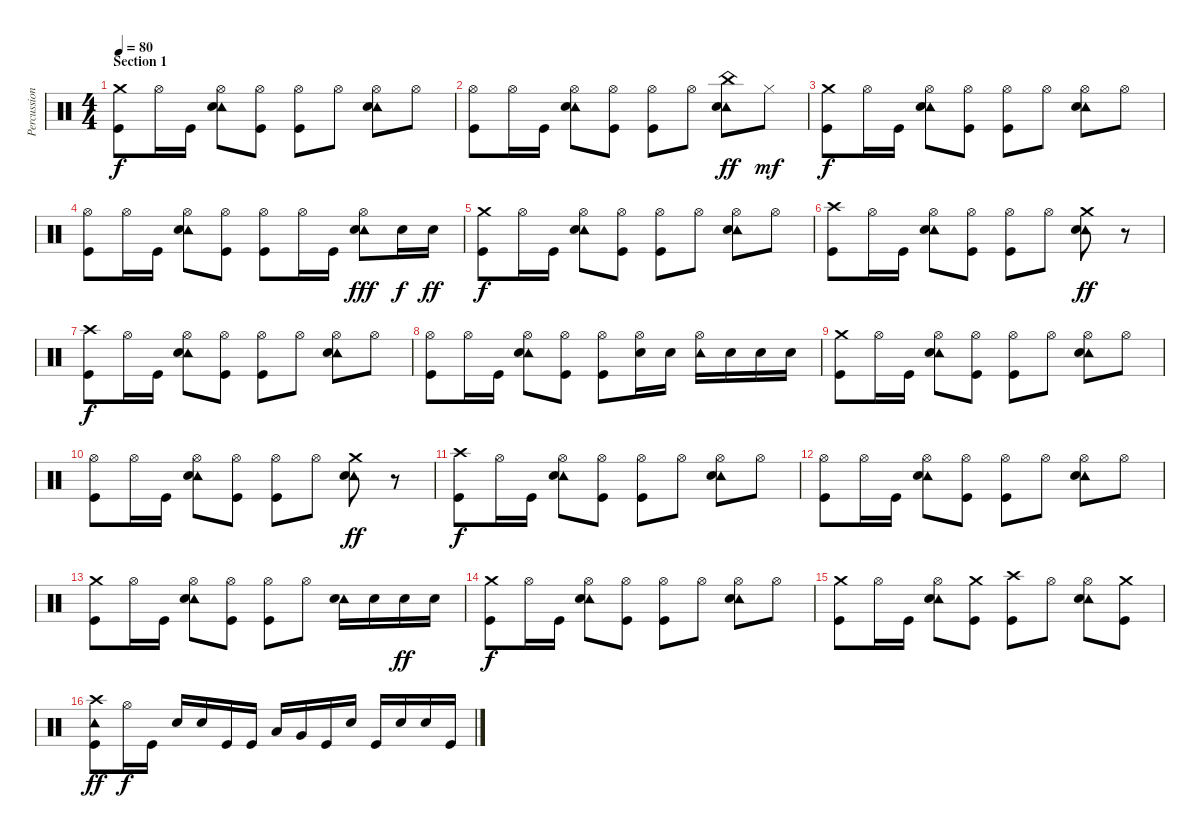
\track ("Percussion" "Percussion") {instrument percussion}
\staff {score}
\articulation defaults
\ts (4 4)
\section ("" "Section 1")
\tempo 80
\clef neutral
\ks c
("Crash medium (hit)" "Kick (hit)").8{dy f} "Hi-Hat (open)".16 "Kick (hit)".16 ("Hi-Hat (open)" "Tambourine (hit)" "Electric Snare (hit)").8 ("Hi-Hat (open)" "Kick (hit)").8 ("Hi-Hat (open)" "Kick (hit)").8 "Hi-Hat (open)".8 ("Hi-Hat (open)" "Tambourine (hit)" "Electric Snare (hit)").8 "Hi-Hat (open)".8 |
("Hi-Hat (open)" "Kick (hit)").8 "Hi-Hat (open)".16 "Kick (hit)".16 ("Hi-Hat (open)" "Tambourine (hit)" "Electric Snare (hit)").8 ("Hi-Hat (open)" "Kick (hit)").8 ("Hi-Hat (open)" "Kick (hit)").8 "Hi-Hat (open)".8 ("China (hit)" "Tambourine (hit)" "Electric Snare (hit)").8{dy ff} "Hi-Hat (closed)".8{dy mf} |
("Crash medium (hit)" "Kick (hit)").8{dy f} "Hi-Hat (open)".16 "Kick (hit)".16 ("Hi-Hat (open)" "Tambourine (hit)" "Electric Snare (hit)").8 ("Hi-Hat (open)" "Kick (hit)").8 ("Hi-Hat (open)" "Kick (hit)").8 "Hi-Hat (open)".8 ("Hi-Hat (open)" "Tambourine (hit)" "Electric Snare (hit)").8 "Hi-Hat (open)".8 |
("Hi-Hat (open)" "Kick (hit)").8 "Hi-Hat (open)".16 "Kick (hit)".16 ("Hi-Hat (open)" "Tambourine (hit)" "Electric Snare (hit)").8 ("Hi-Hat (open)" "Kick (hit)").8 ("Hi-Hat (open)" "Kick (hit)").8 "Hi-Hat (open)".16 "Kick (hit)".16 ("Hi-Hat (open)" "Tambourine (hit)" "Electric Snare (hit)").8{dy fff} "Electric Snare (hit)".16{dy f} "Electric Snare (hit)".16{dy ff} |
("Crash medium (hit)" "Kick (hit)").8{dy f} "Hi-Hat (open)".16 "Kick (hit)".16 ("Hi-Hat (open)" "Tambourine (hit)" "Electric Snare (hit)").8 ("Hi-Hat (open)" "Kick (hit)").8 ("Hi-Hat (open)" "Kick (hit)").8 "Hi-Hat (open)".8 ("Hi-Hat (open)" "Tambourine (hit)" "Electric Snare (hit)").8 "Hi-Hat (open)".8 |
("Crash high (hit)" "Kick (hit)").8 "Hi-Hat (open)".16 "Kick (hit)".16 ("Hi-Hat (open)" "Tambourine (hit)" "Electric Snare (hit)").8 ("Hi-Hat (open)" "Kick (hit)").8 ("Hi-Hat (open)" "Kick (hit)").8 "Hi-Hat (open)".8 ("Crash medium (hit)" "Tambourine (hit)" "Electric Snare (hit)").8{dy ff} r.8 |
("Crash high (hit)" "Kick (hit)").8{dy f} "Hi-Hat (open)".16 "Kick (hit)".16 ("Hi-Hat (open)" "Tambourine (hit)" "Electric Snare (hit)").8 ("Hi-Hat (open)" "Kick (hit)").8 ("Hi-Hat (open)" "Kick (hit)").8 "Hi-Hat (open)".8 ("Hi-Hat (open)" "Tambourine (hit)" "Electric Snare (hit)").8 "Hi-Hat (open)".8 |
("Hi-Hat (open)" "Kick (hit)").8 "Hi-Hat (open)".16 "Kick (hit)".16 ("Hi-Hat (open)" "Tambourine (hit)" "Electric Snare (hit)").8 ("Hi-Hat (open)" "Kick (hit)").8 ("Hi-Hat (open)" "Kick (hit)").8 ("Hi-Hat (open)" "Electric Snare (hit)").16 "Electric Snare (hit)".16 ("Hi-Hat (open)" "Tambourine (hit)").16 "Electric Snare (hit)".16 "Electric Snare (hit)".16 "Electric Snare (hit)".16 |
("Crash medium (hit)" "Kick (hit)").8 "Hi-Hat (open)".16 "Kick (hit)".16 ("Hi-Hat (open)" "Tambourine (hit)" "Electric Snare (hit)").8 ("Hi-Hat (open)" "Kick (hit)").8 ("Hi-Hat (open)" "Kick (hit)").8 "Hi-Hat (open)".8 ("Hi-Hat (open)" "Tambourine (hit)" "Electric Snare (hit)").8 "Hi-Hat (open)".8 |
("Hi-Hat (open)" "Kick (hit)").8 "Hi-Hat (open)".16 "Kick (hit)".16 ("Hi-Hat (open)" "Tambourine (hit)" "Electric Snare (hit)").8 ("Hi-Hat (open)" "Kick (hit)").8 ("Hi-Hat (open)" "Kick (hit)").8 "Hi-Hat (open)".8 ("Crash medium (hit)" "Tambourine (hit)" "Electric Snare (hit)").8{dy ff} r.8 |
("Crash high (hit)" "Kick (hit)").8{dy f} "Hi-Hat (open)".16 "Kick (hit)".16 ("Hi-Hat (open)" "Tambourine (hit)" "Electric Snare (hit)").8 ("Hi-Hat (open)" "Kick (hit)").8 ("Hi-Hat (open)" "Kick (hit)").8 "Hi-Hat (open)".8 ("Hi-Hat (open)" "Tambourine (hit)" "Electric Snare (hit)").8 "Hi-Hat (open)".8 |
("Hi-Hat (open)" "Kick (hit)").8 "Hi-Hat (open)".16 "Kick (hit)".16 ("Hi-Hat (open)" "Tambourine (hit)" "Electric Snare (hit)").8 ("Hi-Hat (open)" "Kick (hit)").8 ("Hi-Hat (open)" "Kick (hit)").8 "Hi-Hat (open)".8 ("Hi-Hat (open)" "Tambourine (hit)" "Electric Snare (hit)").8 "Hi-Hat (open)".8 |
("Crash medium (hit)" "Kick (hit)").8 "Hi-Hat (open)".16 "Kick (hit)".16 ("Hi-Hat (open)" "Tambourine (hit)" "Electric Snare (hit)").8 ("Hi-Hat (open)" "Kick (hit)").8 ("Hi-Hat (open)" "Kick (hit)").8 "Hi-Hat (open)".8 ("Tambourine (hit)" "Electric Snare (hit)").16 "Electric Snare (hit)".16 "Electric Snare (hit)".16{dy ff} "Electric Snare (hit)".16 |
("Crash medium (hit)" "Kick (hit)").8{dy f} "Hi-Hat (open)".16 "Kick (hit)".16 ("Hi-Hat (open)" "Tambourine (hit)" "Electric Snare (hit)").8 ("Hi-Hat (open)" "Kick (hit)").8 ("Hi-Hat (open)" "Kick (hit)").8 "Hi-Hat (open)".8 ("Hi-Hat (open)" "Tambourine (hit)" "Electric Snare (hit)").8 "Hi-Hat (open)".8 |
("Crash medium (hit)" "Kick (hit)").8 "Hi-Hat (open)".16 "Kick (hit)".16 ("Hi-Hat (open)" "Tambourine (hit)" "Electric Snare (hit)").8 ("Crash medium (hit)" "Kick (hit)").8 ("Crash high (hit)" "Kick (hit)").8 "Hi-Hat (open)".8 ("Hi-Hat (open)" "Tambourine (hit)" "Electric Snare (hit)").8 ("Crash medium (hit)" "Kick (hit)").8 |
("Crash high (hit)" "Tambourine (hit)" "Kick (hit)").8{dy ff} "Hi-Hat (open)".16{dy f} "Kick (hit)".16 "Electric Snare (hit)".16 "Electric Snare (hit)".16 "Kick (hit)".16 "Kick (hit)".16 "Low Tom (hit)".16 "Very Low Tom (hit)".16 "Kick (hit)".16 "Electric Snare (hit)".16 "Kick (hit)".16 "Electric Snare (hit)".16 "Electric Snare (hit)".16 "Kick (hit)".16
